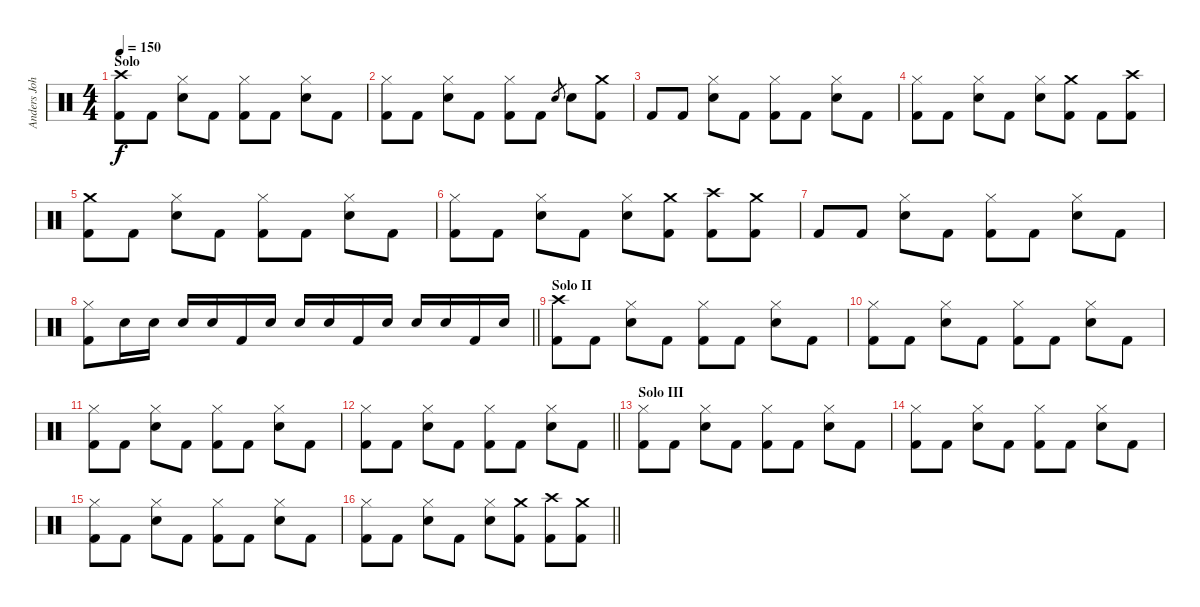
\track ("Anders Johansson" "Anders Joh") {instrument percussion}
\staff {score}
\articulation defaults
\ts (4 4)
\section ("" "Solo")
\tempo 150
\clef neutral
\ks c
("Crash high (hit)" "Kick (hit) 2").8{dy f} "Kick (hit) 2".8 ("Hi-Hat (closed)" "Snare (hit) 2").8 "Kick (hit) 2".8 ("Hi-Hat (closed)" "Kick (hit) 2").8 "Kick (hit) 2".8 ("Hi-Hat (closed)" "Snare (hit) 2").8 "Kick (hit) 2".8 |
("Hi-Hat (closed)" "Kick (hit) 2").8 "Kick (hit) 2".8 ("Hi-Hat (closed)" "Snare (hit) 2").8 "Kick (hit) 2".8 ("Hi-Hat (closed)" "Kick (hit) 2").8 "Kick (hit) 2".8 "Snare (hit) 2".8{gr} "Snare (hit) 2".8 ("Crash medium (hit)" "Kick (hit) 2").8 |
"Kick (hit) 2".8 "Kick (hit) 2".8 ("Hi-Hat (closed)" "Snare (hit) 2").8 "Kick (hit) 2".8 ("Hi-Hat (closed)" "Kick (hit) 2").8 "Kick (hit) 2".8 ("Hi-Hat (closed)" "Snare (hit) 2").8 "Kick (hit) 2".8 |
("Hi-Hat (closed)" "Kick (hit) 2").8 "Kick (hit) 2".8 ("Hi-Hat (closed)" "Snare (hit) 2").8 "Kick (hit) 2".8 ("Hi-Hat (closed)" "Snare (hit) 2").8 ("Crash medium (hit)" "Kick (hit) 2").8 "Kick (hit) 2".8 ("Crash high (hit)" "Kick (hit) 2").8 |
("Crash medium (hit)" "Kick (hit) 2").8 "Kick (hit) 2".8 ("Hi-Hat (closed)" "Snare (hit) 2").8 "Kick (hit) 2".8 ("Hi-Hat (closed)" "Kick (hit) 2").8 "Kick (hit) 2".8 ("Hi-Hat (closed)" "Snare (hit) 2").8 "Kick (hit) 2".8 |
("Hi-Hat (closed)" "Kick (hit) 2").8 "Kick (hit) 2".8 ("Hi-Hat (closed)" "Snare (hit) 2").8 "Kick (hit) 2".8 ("Hi-Hat (closed)" "Snare (hit) 2").8 ("Crash medium (hit)" "Kick (hit) 2").8 ("Crash high (hit)" "Kick (hit) 2").8 ("Crash medium (hit)" "Kick (hit) 2").8 |
"Kick (hit) 2".8 "Kick (hit) 2".8 ("Hi-Hat (closed)" "Snare (hit) 2").8 "Kick (hit) 2".8 ("Hi-Hat (closed)" "Kick (hit) 2").8 "Kick (hit) 2".8 ("Hi-Hat (closed)" "Snare (hit) 2").8 "Kick (hit) 2".8 |
\barLineRight lightlight
("Hi-Hat (closed)" "Kick (hit) 2").8 "Snare (hit) 2".16 "Snare (hit) 2".16 "Snare (hit) 2".16 "Snare (hit) 2".16 "Kick (hit) 2".16 "Snare (hit) 2".16 "Snare (hit) 2".16 "Snare (hit) 2".16 "Kick (hit) 2".16 "Snare (hit) 2".16 "Snare (hit) 2".16 "Snare (hit) 2".16 "Kick (hit) 2".16 "Snare (hit) 2".16 |
\section ("" "Solo II")
("Crash high (hit)" "Kick (hit) 2").8 "Kick (hit) 2".8 ("Hi-Hat (closed)" "Snare (hit) 2").8 "Kick (hit) 2".8 ("Hi-Hat (closed)" "Kick (hit) 2").8 "Kick (hit) 2".8 ("Hi-Hat (closed)" "Snare (hit) 2").8 "Kick (hit) 2".8 |
("Hi-Hat (closed)" "Kick (hit) 2").8 "Kick (hit) 2".8 ("Hi-Hat (closed)" "Snare (hit) 2").8 "Kick (hit) 2".8 ("Hi-Hat (closed)" "Kick (hit) 2").8 "Kick (hit) 2".8 ("Hi-Hat (closed)" "Snare (hit) 2").8 "Kick (hit) 2".8 |
("Hi-Hat (closed)" "Kick (hit) 2").8 "Kick (hit) 2".8 ("Hi-Hat (closed)" "Snare (hit) 2").8 "Kick (hit) 2".8 ("Hi-Hat (closed)" "Kick (hit) 2").8 "Kick (hit) 2".8 ("Hi-Hat (closed)" "Snare (hit) 2").8 "Kick (hit) 2".8 |
\barLineRight lightlight
("Hi-Hat (closed)" "Kick (hit) 2").8 "Kick (hit) 2".8 ("Hi-Hat (closed)" "Snare (hit) 2").8 "Kick (hit) 2".8 ("Hi-Hat (closed)" "Kick (hit) 2").8 "Kick (hit) 2".8 ("Hi-Hat (closed)" "Snare (hit) 2").8 "Kick (hit) 2".8 |
\section ("" "Solo III")
("Hi-Hat (closed)" "Kick (hit) 2").8 "Kick (hit) 2".8 ("Hi-Hat (closed)" "Snare (hit) 2").8 "Kick (hit) 2".8 ("Hi-Hat (closed)" "Kick (hit) 2").8 "Kick (hit) 2".8 ("Hi-Hat (closed)" "Snare (hit) 2").8 "Kick (hit) 2".8 |
("Hi-Hat (closed)" "Kick (hit) 2").8 "Kick (hit) 2".8 ("Hi-Hat (closed)" "Snare (hit) 2").8 "Kick (hit) 2".8 ("Hi-Hat (closed)" "Kick (hit) 2").8 "Kick (hit) 2".8 ("Hi-Hat (closed)" "Snare (hit) 2").8 "Kick (hit) 2".8 |
("Hi-Hat (closed)" "Kick (hit) 2").8 "Kick (hit) 2".8 ("Hi-Hat (closed)" "Snare (hit) 2").8 "Kick (hit) 2".8 ("Hi-Hat (closed)" "Kick (hit) 2").8 "Kick (hit) 2".8 ("Hi-Hat (closed)" "Snare (hit) 2").8 "Kick (hit) 2".8 |
\barLineRight lightlight
("Hi-Hat (closed)" "Kick (hit) 2").8 "Kick (hit) 2".8 ("Hi-Hat (closed)" "Snare (hit) 2").8 "Kick (hit) 2".8 ("Hi-Hat (closed)" "Snare (hit) 2").8 ("Crash medium (hit)" "Kick (hit) 2").8 ("Crash high (hit)" "Kick (hit) 2").8 ("Crash medium (hit)" "Kick (hit) 2").8
